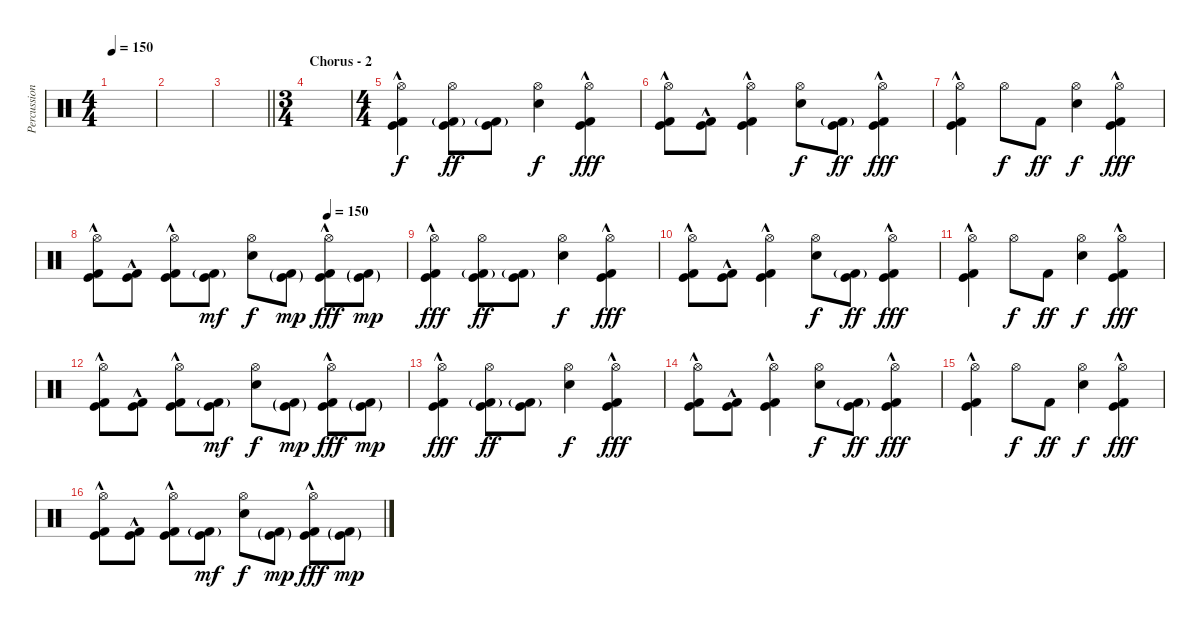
\track ("Percussion" "Percussion") {instrument percussion}
\staff {score}
\articulation defaults
\ts (4 4)
\tempo 150
\clef neutral
\ks c
|
|
\barLineRight lightlight
|
\ts (3 4)
\section ("" "Chorus - 2")
|
\ts (4 4)
("Hi-Hat (open)" "Kick (hit) 2"{hac} "Kick (hit)"{hac}).4 ("Hi-Hat (open)" "Kick (hit) 2"{g} "Kick (hit)").8{dy ff} ("Kick (hit) 2"{g} "Kick (hit)").8 ("Hi-Hat (open)" "Electric Snare (hit)").4{dy f} ("Hi-Hat (open)" "Kick (hit) 2"{hac} "Kick (hit)"{hac}).4{dy fff} |
("Hi-Hat (open)" "Kick (hit) 2"{hac} "Kick (hit)"{hac}).8 ("Kick (hit) 2"{hac} "Kick (hit)").8 ("Hi-Hat (open)" "Kick (hit) 2"{hac} "Kick (hit)").4 ("Hi-Hat (open)" "Electric Snare (hit)").8{dy f} ("Kick (hit) 2"{g} "Kick (hit)").8{dy ff} ("Hi-Hat (open)" "Kick (hit) 2"{hac} "Kick (hit)"{hac}).4{dy fff} |
("Hi-Hat (open)" "Kick (hit) 2"{hac} "Kick (hit)"{hac}).4 "Hi-Hat (open)".8{dy f} "Kick (hit) 2".8{dy ff} ("Hi-Hat (open)" "Electric Snare (hit)").4{dy f} ("Hi-Hat (open)" "Kick (hit) 2"{hac} "Kick (hit)"{hac}).4{dy fff} |
\tempo (150 0.75)
("Hi-Hat (open)" "Kick (hit) 2"{hac} "Kick (hit)"{hac}).8 ("Kick (hit) 2"{hac} "Kick (hit)").8 ("Hi-Hat (open)" "Kick (hit) 2"{hac} "Kick (hit)").8 ("Kick (hit) 2"{g} "Kick (hit)").8{dy mf} ("Hi-Hat (open)" "Electric Snare (hit)").8{dy f} ("Kick (hit) 2"{g} "Kick (hit)"{g}).8{dy mp} ("Hi-Hat (open)" "Kick (hit) 2"{hac} "Kick (hit)"{hac}).8{dy fff} ("Kick (hit) 2"{g} "Kick (hit)"{g}).8{dy mp} |
("Hi-Hat (open)" "Kick (hit) 2"{hac} "Kick (hit)"{hac}).4{dy fff} ("Hi-Hat (open)" "Kick (hit) 2"{g} "Kick (hit)").8{dy ff} ("Kick (hit) 2"{g} "Kick (hit)").8 ("Hi-Hat (open)" "Electric Snare (hit)").4{dy f} ("Hi-Hat (open)" "Kick (hit) 2"{hac} "Kick (hit)"{hac}).4{dy fff} |
("Hi-Hat (open)" "Kick (hit) 2"{hac} "Kick (hit)"{hac}).8 ("Kick (hit) 2"{hac} "Kick (hit)").8 ("Hi-Hat (open)" "Kick (hit) 2"{hac} "Kick (hit)").4 ("Hi-Hat (open)" "Electric Snare (hit)").8{dy f} ("Kick (hit) 2"{g} "Kick (hit)").8{dy ff} ("Hi-Hat (open)" "Kick (hit) 2"{hac} "Kick (hit)"{hac}).4{dy fff} |
("Hi-Hat (open)" "Kick (hit) 2"{hac} "Kick (hit)"{hac}).4 "Hi-Hat (open)".8{dy f} "Kick (hit) 2".8{dy ff} ("Hi-Hat (open)" "Electric Snare (hit)").4{dy f} ("Hi-Hat (open)" "Kick (hit) 2"{hac} "Kick (hit)"{hac}).4{dy fff} |
("Hi-Hat (open)" "Kick (hit) 2"{hac} "Kick (hit)"{hac}).8 ("Kick (hit) 2"{hac} "Kick (hit)").8 ("Hi-Hat (open)" "Kick (hit) 2"{hac} "Kick (hit)").8 ("Kick (hit) 2"{g} "Kick (hit)").8{dy mf} ("Hi-Hat (open)" "Electric Snare (hit)").8{dy f} ("Kick (hit) 2"{g} "Kick (hit)"{g}).8{dy mp} ("Hi-Hat (open)" "Kick (hit) 2"{hac} "Kick (hit)"{hac}).8{dy fff} ("Kick (hit) 2"{g} "Kick (hit)"{g}).8{dy mp} |
("Hi-Hat (open)" "Kick (hit) 2"{hac} "Kick (hit)"{hac}).4{dy fff} ("Hi-Hat (open)" "Kick (hit) 2"{g} "Kick (hit)").8{dy ff} ("Kick (hit) 2"{g} "Kick (hit)").8 ("Hi-Hat (open)" "Electric Snare (hit)").4{dy f} ("Hi-Hat (open)" "Kick (hit) 2"{hac} "Kick (hit)"{hac}).4{dy fff} |
("Hi-Hat (open)" "Kick (hit) 2"{hac} "Kick (hit)"{hac}).8 ("Kick (hit) 2"{hac} "Kick (hit)").8 ("Hi-Hat (open)" "Kick (hit) 2"{hac} "Kick (hit)").4 ("Hi-Hat (open)" "Electric Snare (hit)").8{dy f} ("Kick (hit) 2"{g} "Kick (hit)").8{dy ff} ("Hi-Hat (open)" "Kick (hit) 2"{hac} "Kick (hit)"{hac}).4{dy fff} |
("Hi-Hat (open)" "Kick (hit) 2"{hac} "Kick (hit)"{hac}).4 "Hi-Hat (open)".8{dy f} "Kick (hit) 2".8{dy ff} ("Hi-Hat (open)" "Electric Snare (hit)").4{dy f} ("Hi-Hat (open)" "Kick (hit) 2"{hac} "Kick (hit)"{hac}).4{dy fff} |
("Hi-Hat (open)" "Kick (hit) 2"{hac} "Kick (hit)"{hac}).8 ("Kick (hit) 2"{hac} "Kick (hit)").8 ("Hi-Hat (open)" "Kick (hit) 2"{hac} "Kick (hit)").8 ("Kick (hit) 2"{g} "Kick (hit)").8{dy mf} ("Hi-Hat (open)" "Electric Snare (hit)").8{dy f} ("Kick (hit) 2"{g} "Kick (hit)"{g}).8{dy mp} ("Hi-Hat (open)" "Kick (hit) 2"{hac} "Kick (hit)"{hac}).8{dy fff} ("Kick (hit) 2"{g} "Kick (hit)"{g}).8{dy mp}
